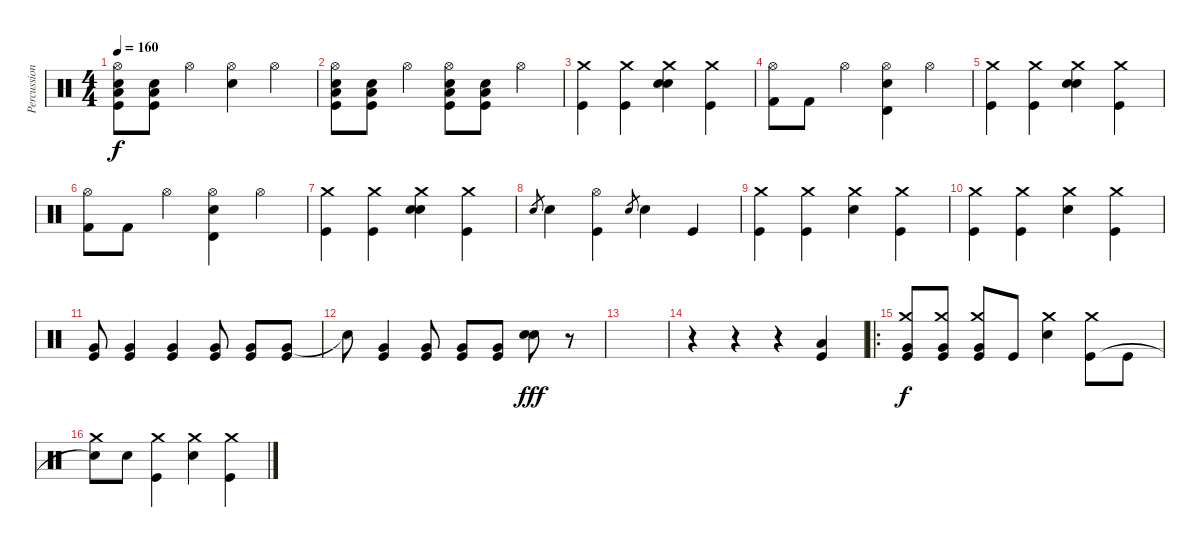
\track ("Percussion" "Percussion") {instrument percussion}
\staff {score}
\articulation defaults
\ts (4 4)
\tempo 160
\clef neutral
\ks c
("Hi-Hat (open)" "Low Tom (hit)" "Electric Snare (hit)" "Kick (hit)").8{dy f} ("Low Tom (hit)" "Electric Snare (hit)" "Kick (hit)").8 "Hi-Hat (open)".4 ("Hi-Hat (open)" "Electric Snare (hit)").4 "Hi-Hat (open)".4 |
("Hi-Hat (open)" "Electric Snare (hit)" "Low Tom (hit)" "Kick (hit)").8 ("Electric Snare (hit)" "Low Tom (hit)" "Kick (hit)").8 "Hi-Hat (open)".4 ("Hi-Hat (open)" "Electric Snare (hit)" "Low Tom (hit)" "Kick (hit)").8 ("Electric Snare (hit)" "Low Tom (hit)" "Kick (hit)").8 "Hi-Hat (open)".4 |
("Crash medium (hit)" "Kick (hit)").4 ("Crash medium (hit)" "Kick (hit)").4 ("Crash medium (hit)" "Electric Snare (hit)" "Snare (hit) 2").4 ("Crash medium (hit)" "Kick (hit)").4 |
("Hi-Hat (open)" "Kick (hit) 2").8 "Kick (hit) 2".8 "Hi-Hat (open)".4 ("Hi-Hat (open)" "Electric Snare (hit)" "Timbale high (hit)").4 "Hi-Hat (open)".4 |
("Crash medium (hit)" "Kick (hit)").4 ("Crash medium (hit)" "Kick (hit)").4 ("Crash medium (hit)" "Electric Snare (hit)" "Snare (hit) 2").4 ("Crash medium (hit)" "Kick (hit)").4 |
("Hi-Hat (open)" "Kick (hit) 2").8 "Kick (hit) 2".8 "Hi-Hat (open)".4 ("Hi-Hat (open)" "Electric Snare (hit)" "Timbale high (hit)").4 "Hi-Hat (open)".4 |
("Crash medium (hit)" "Kick (hit)").4 ("Crash medium (hit)" "Kick (hit)").4 ("Crash medium (hit)" "Electric Snare (hit)" "Snare (hit) 2").4 ("Crash medium (hit)" "Kick (hit)").4 |
"Electric Snare (hit)".8{gr} "Electric Snare (hit)".4 ("Hi-Hat (open)" "Kick (hit)").4 "Electric Snare (hit)".8{gr} "Electric Snare (hit)".4 "Kick (hit)".4 |
("Crash medium (hit)" "Kick (hit)").4 ("Crash medium (hit)" "Kick (hit)").4 ("Crash medium (hit)" "Electric Snare (hit)").4 ("Crash medium (hit)" "Kick (hit)").4 |
("Crash medium (hit)" "Kick (hit)").4 ("Crash medium (hit)" "Kick (hit)").4 ("Crash medium (hit)" "Electric Snare (hit)").4 ("Crash medium (hit)" "Kick (hit)").4 |
("Very Low Tom (hit)" "Kick (hit)").8 ("Very Low Tom (hit)" "Kick (hit)").4 ("Very Low Tom (hit)" "Kick (hit)").4 ("Very Low Tom (hit)" "Kick (hit)").8 ("Very Low Tom (hit)" "Kick (hit)").8 ("Very Low Tom (hit)" "Kick (hit)").8 |
"Snare (hit)"{t}.8 ("Very Low Tom (hit)" "Kick (hit)").4 ("Very Low Tom (hit)" "Kick (hit)").8 ("Very Low Tom (hit)" "Kick (hit)").8 ("Very Low Tom (hit)" "Kick (hit)").8 ("Electric Snare (hit)" "Snare (hit) 2").8{dy fff} r.8 |
|
r.4 r.4 r.4 ("Low Floor Tom (hit)" "Kick (hit)").4 |
\ro
("Crash medium (hit)" "Very Low Tom (hit)" "Kick (hit)").8{dy f} ("Crash medium (hit)" "Very Low Tom (hit)" "Kick (hit)").8 ("Crash medium (hit)" "Very Low Tom (hit)" "Kick (hit)").8 "Kick (hit)".8 ("Crash medium (hit)" "Electric Snare (hit)").4 ("Crash medium (hit)" "Kick (hit)").8 "Kick (hit)".8 |
("Crash medium (hit)" "Snare (hit)"{t}).8 "Electric Snare (hit)".8 ("Crash medium (hit)" "Kick (hit)").4 ("Crash medium (hit)" "Electric Snare (hit)").4 ("Crash medium (hit)" "Kick (hit)").4
